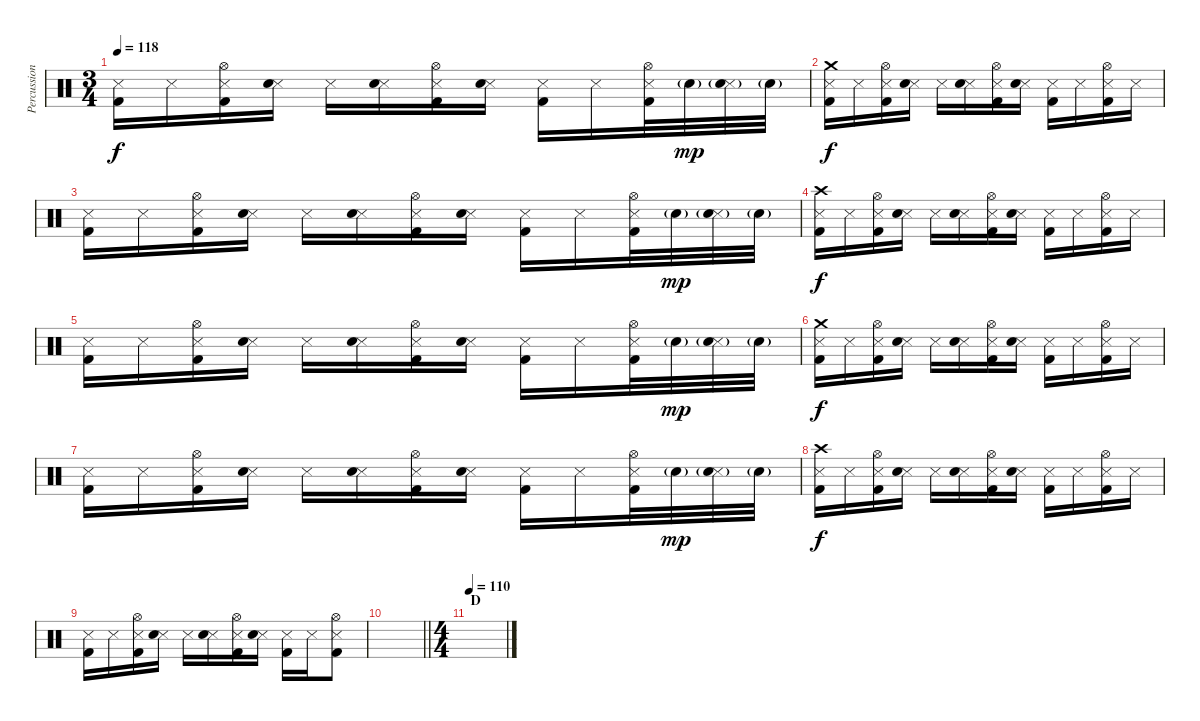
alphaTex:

\track ("Percussion" "Percussion") {instrument percussion}
\staff {score}
\articulation defaults
\ts (3 4)
\tempo 118
\clef neutral
\ks c
("Snare (side stick) 3" "Kick (hit) 2").16{dy f} "Snare (side stick) 3".16 ("Hi-Hat (open)" "Snare (side stick) 3" "Kick (hit) 2").16 ("Snare (side stick) 3" "Electric Snare (hit)").16 "Snare (side stick) 3".16 ("Snare (side stick) 3" "Electric Snare (hit)").16 ("Hi-Hat (open)" "Snare (side stick) 3" "Kick (hit) 2").16 ("Snare (side stick) 3" "Electric Snare (hit)").16 ("Snare (side stick) 3" "Kick (hit) 2").16 "Snare (side stick) 3".16 ("Hi-Hat (open)" "Snare (side stick) 3" "Kick (hit) 2").32 "Electric Snare (hit)"{g}.32{dy mp} ("Snare (side stick) 3" "Electric Snare (hit)"{g}).32 "Electric Snare (hit)"{g}.32 |
("Crash medium (hit)" "Snare (side stick) 3" "Kick (hit) 2").16{dy f} "Snare (side stick) 3".16 ("Hi-Hat (open)" "Snare (side stick) 3" "Kick (hit) 2").16 ("Snare (side stick) 3" "Electric Snare (hit)").16 "Snare (side stick) 3".16 ("Snare (side stick) 3" "Electric Snare (hit)").16 ("Hi-Hat (open)" "Snare (side stick) 3" "Kick (hit) 2").16 ("Snare (side stick) 3" "Electric Snare (hit)").16 ("Snare (side stick) 3" "Kick (hit) 2").16 "Snare (side stick) 3".16 ("Hi-Hat (open)" "Snare (side stick) 3" "Kick (hit) 2").16 "Snare (side stick) 3".16 |
("Snare (side stick) 3" "Kick (hit) 2").16 "Snare (side stick) 3".16 ("Hi-Hat (open)" "Snare (side stick) 3" "Kick (hit) 2").16 ("Snare (side stick) 3" "Electric Snare (hit)").16 "Snare (side stick) 3".16 ("Snare (side stick) 3" "Electric Snare (hit)").16 ("Hi-Hat (open)" "Snare (side stick) 3" "Kick (hit) 2").16 ("Snare (side stick) 3" "Electric Snare (hit)").16 ("Snare (side stick) 3" "Kick (hit) 2").16 "Snare (side stick) 3".16 ("Hi-Hat (open)" "Snare (side stick) 3" "Kick (hit) 2").32 "Electric Snare (hit)"{g}.32{dy mp} ("Snare (side stick) 3" "Electric Snare (hit)"{g}).32 "Electric Snare (hit)"{g}.32 |
("Crash high (hit)" "Snare (side stick) 3" "Kick (hit) 2").16{dy f} "Snare (side stick) 3".16 ("Hi-Hat (open)" "Snare (side stick) 3" "Kick (hit) 2").16 ("Snare (side stick) 3" "Electric Snare (hit)").16 "Snare (side stick) 3".16 ("Snare (side stick) 3" "Electric Snare (hit)").16 ("Hi-Hat (open)" "Snare (side stick) 3" "Kick (hit) 2").16 ("Snare (side stick) 3" "Electric Snare (hit)").16 ("Snare (side stick) 3" "Kick (hit) 2").16 "Snare (side stick) 3".16 ("Hi-Hat (open)" "Snare (side stick) 3" "Kick (hit) 2").16 "Snare (side stick) 3".16 |
("Snare (side stick) 3" "Kick (hit) 2").16 "Snare (side stick) 3".16 ("Hi-Hat (open)" "Snare (side stick) 3" "Kick (hit) 2").16 ("Snare (side stick) 3" "Electric Snare (hit)").16 "Snare (side stick) 3".16 ("Snare (side stick) 3" "Electric Snare (hit)").16 ("Hi-Hat (open)" "Snare (side stick) 3" "Kick (hit) 2").16 ("Snare (side stick) 3" "Electric Snare (hit)").16 ("Snare (side stick) 3" "Kick (hit) 2").16 "Snare (side stick) 3".16 ("Hi-Hat (open)" "Snare (side stick) 3" "Kick (hit) 2").32 "Electric Snare (hit)"{g}.32{dy mp} ("Snare (side stick) 3" "Electric Snare (hit)"{g}).32 "Electric Snare (hit)"{g}.32 |
("Crash medium (hit)" "Snare (side stick) 3" "Kick (hit) 2").16{dy f} "Snare (side stick) 3".16 ("Hi-Hat (open)" "Snare (side stick) 3" "Kick (hit) 2").16 ("Snare (side stick) 3" "Electric Snare (hit)").16 "Snare (side stick) 3".16 ("Snare (side stick) 3" "Electric Snare (hit)").16 ("Hi-Hat (open)" "Snare (side stick) 3" "Kick (hit) 2").16 ("Snare (side stick) 3" "Electric Snare (hit)").16 ("Snare (side stick) 3" "Kick (hit) 2").16 "Snare (side stick) 3".16 ("Hi-Hat (open)" "Snare (side stick) 3" "Kick (hit) 2").16 "Snare (side stick) 3".16 |
("Snare (side stick) 3" "Kick (hit) 2").16 "Snare (side stick) 3".16 ("Hi-Hat (open)" "Snare (side stick) 3" "Kick (hit) 2").16 ("Snare (side stick) 3" "Electric Snare (hit)").16 "Snare (side stick) 3".16 ("Snare (side stick) 3" "Electric Snare (hit)").16 ("Hi-Hat (open)" "Snare (side stick) 3" "Kick (hit) 2").16 ("Snare (side stick) 3" "Electric Snare (hit)").16 ("Snare (side stick) 3" "Kick (hit) 2").16 "Snare (side stick) 3".16 ("Hi-Hat (open)" "Snare (side stick) 3" "Kick (hit) 2").32 "Electric Snare (hit)"{g}.32{dy mp} ("Snare (side stick) 3" "Electric Snare (hit)"{g}).32 "Electric Snare (hit)"{g}.32 |
("Crash high (hit)" "Snare (side stick) 3" "Kick (hit) 2").16{dy f} "Snare (side stick) 3".16 ("Hi-Hat (open)" "Snare (side stick) 3" "Kick (hit) 2").16 ("Snare (side stick) 3" "Electric Snare (hit)").16 "Snare (side stick) 3".16 ("Snare (side stick) 3" "Electric Snare (hit)").16 ("Hi-Hat (open)" "Snare (side stick) 3" "Kick (hit) 2").16 ("Snare (side stick) 3" "Electric Snare (hit)").16 ("Snare (side stick) 3" "Kick (hit) 2").16 "Snare (side stick) 3".16 ("Hi-Hat (open)" "Snare (side stick) 3" "Kick (hit) 2").16 "Snare (side stick) 3".16 |
("Snare (side stick) 3" "Kick (hit) 2").16 "Snare (side stick) 3".16 ("Hi-Hat (open)" "Snare (side stick) 3" "Kick (hit) 2").16 ("Snare (side stick) 3" "Electric Snare (hit)").16 "Snare (side stick) 3".16 ("Snare (side stick) 3" "Electric Snare (hit)").16 ("Hi-Hat (open)" "Snare (side stick) 3" "Kick (hit) 2").16 ("Snare (side stick) 3" "Electric Snare (hit)").16 ("Snare (side stick) 3" "Kick (hit) 2").16 "Snare (side stick) 3".16 ("Hi-Hat (open)" "Snare (side stick) 3" "Kick (hit) 2").8 |
\barLineRight lightlight
|
\ts (4 4)
\section ("" "D")
\tempo 110
